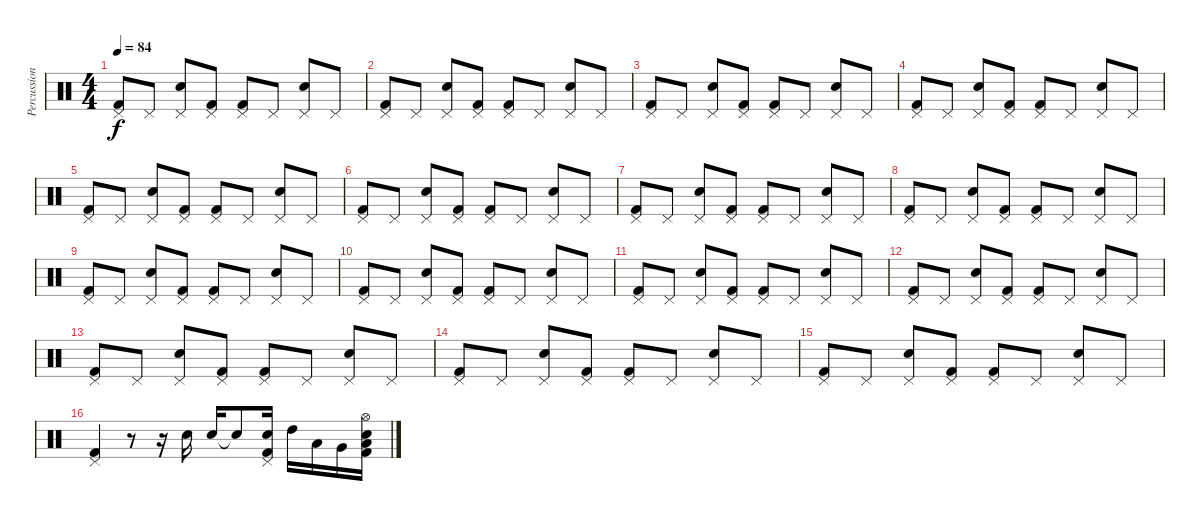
\track ("Percussion" "Percussion") {instrument percussion}
\staff {score}
\articulation defaults
\ts (4 4)
\tempo 84
\clef neutral
\ks c
("Pedal Hi-Hat (hit)" "Kick (hit) 2").8{dy f} "Pedal Hi-Hat (hit)".8 ("Pedal Hi-Hat (hit)" "Snare (hit) 2").8 ("Pedal Hi-Hat (hit)" "Kick (hit) 2").8 ("Pedal Hi-Hat (hit)" "Kick (hit) 2").8 "Pedal Hi-Hat (hit)".8 ("Pedal Hi-Hat (hit)" "Snare (hit) 2").8 "Pedal Hi-Hat (hit)".8 |
("Pedal Hi-Hat (hit)" "Kick (hit) 2").8 "Pedal Hi-Hat (hit)".8 ("Pedal Hi-Hat (hit)" "Snare (hit) 2").8 ("Pedal Hi-Hat (hit)" "Kick (hit) 2").8 ("Pedal Hi-Hat (hit)" "Kick (hit) 2").8 "Pedal Hi-Hat (hit)".8 ("Pedal Hi-Hat (hit)" "Snare (hit) 2").8 "Pedal Hi-Hat (hit)".8 |
("Pedal Hi-Hat (hit)" "Kick (hit) 2").8 "Pedal Hi-Hat (hit)".8 ("Pedal Hi-Hat (hit)" "Snare (hit) 2").8 ("Pedal Hi-Hat (hit)" "Kick (hit) 2").8 ("Pedal Hi-Hat (hit)" "Kick (hit) 2").8 "Pedal Hi-Hat (hit)".8 ("Pedal Hi-Hat (hit)" "Snare (hit) 2").8 "Pedal Hi-Hat (hit)".8 |
("Pedal Hi-Hat (hit)" "Kick (hit) 2").8 "Pedal Hi-Hat (hit)".8 ("Pedal Hi-Hat (hit)" "Snare (hit) 2").8 ("Pedal Hi-Hat (hit)" "Kick (hit) 2").8 ("Pedal Hi-Hat (hit)" "Kick (hit) 2").8 "Pedal Hi-Hat (hit)".8 ("Pedal Hi-Hat (hit)" "Snare (hit) 2").8 "Pedal Hi-Hat (hit)".8 |
("Pedal Hi-Hat (hit)" "Kick (hit) 2").8 "Pedal Hi-Hat (hit)".8 ("Pedal Hi-Hat (hit)" "Snare (hit) 2").8 ("Pedal Hi-Hat (hit)" "Kick (hit) 2").8 ("Pedal Hi-Hat (hit)" "Kick (hit) 2").8 "Pedal Hi-Hat (hit)".8 ("Pedal Hi-Hat (hit)" "Snare (hit) 2").8 "Pedal Hi-Hat (hit)".8 |
("Pedal Hi-Hat (hit)" "Kick (hit) 2").8 "Pedal Hi-Hat (hit)".8 ("Pedal Hi-Hat (hit)" "Snare (hit) 2").8 ("Pedal Hi-Hat (hit)" "Kick (hit) 2").8 ("Pedal Hi-Hat (hit)" "Kick (hit) 2").8 "Pedal Hi-Hat (hit)".8 ("Pedal Hi-Hat (hit)" "Snare (hit) 2").8 "Pedal Hi-Hat (hit)".8 |
("Pedal Hi-Hat (hit)" "Kick (hit) 2").8 "Pedal Hi-Hat (hit)".8 ("Pedal Hi-Hat (hit)" "Snare (hit) 2").8 ("Pedal Hi-Hat (hit)" "Kick (hit) 2").8 ("Pedal Hi-Hat (hit)" "Kick (hit) 2").8 "Pedal Hi-Hat (hit)".8 ("Pedal Hi-Hat (hit)" "Snare (hit) 2").8 "Pedal Hi-Hat (hit)".8 |
("Pedal Hi-Hat (hit)" "Kick (hit) 2").8 "Pedal Hi-Hat (hit)".8 ("Pedal Hi-Hat (hit)" "Snare (hit) 2").8 ("Pedal Hi-Hat (hit)" "Kick (hit) 2").8 ("Pedal Hi-Hat (hit)" "Kick (hit) 2").8 "Pedal Hi-Hat (hit)".8 ("Pedal Hi-Hat (hit)" "Snare (hit) 2").8 "Pedal Hi-Hat (hit)".8 |
("Pedal Hi-Hat (hit)" "Kick (hit) 2").8 "Pedal Hi-Hat (hit)".8 ("Pedal Hi-Hat (hit)" "Snare (hit) 2").8 ("Pedal Hi-Hat (hit)" "Kick (hit) 2").8 ("Pedal Hi-Hat (hit)" "Kick (hit) 2").8 "Pedal Hi-Hat (hit)".8 ("Pedal Hi-Hat (hit)" "Snare (hit) 2").8 "Pedal Hi-Hat (hit)".8 |
("Pedal Hi-Hat (hit)" "Kick (hit) 2").8 "Pedal Hi-Hat (hit)".8 ("Pedal Hi-Hat (hit)" "Snare (hit) 2").8 ("Pedal Hi-Hat (hit)" "Kick (hit) 2").8 ("Pedal Hi-Hat (hit)" "Kick (hit) 2").8 "Pedal Hi-Hat (hit)".8 ("Pedal Hi-Hat (hit)" "Snare (hit) 2").8 "Pedal Hi-Hat (hit)".8 |
("Pedal Hi-Hat (hit)" "Kick (hit) 2").8 "Pedal Hi-Hat (hit)".8 ("Pedal Hi-Hat (hit)" "Snare (hit) 2").8 ("Pedal Hi-Hat (hit)" "Kick (hit) 2").8 ("Pedal Hi-Hat (hit)" "Kick (hit) 2").8 "Pedal Hi-Hat (hit)".8 ("Pedal Hi-Hat (hit)" "Snare (hit) 2").8 "Pedal Hi-Hat (hit)".8 |
("Pedal Hi-Hat (hit)" "Kick (hit) 2").8 "Pedal Hi-Hat (hit)".8 ("Pedal Hi-Hat (hit)" "Snare (hit) 2").8 ("Pedal Hi-Hat (hit)" "Kick (hit) 2").8 ("Pedal Hi-Hat (hit)" "Kick (hit) 2").8 "Pedal Hi-Hat (hit)".8 ("Pedal Hi-Hat (hit)" "Snare (hit) 2").8 "Pedal Hi-Hat (hit)".8 |
("Pedal Hi-Hat (hit)" "Kick (hit) 2").8 "Pedal Hi-Hat (hit)".8 ("Pedal Hi-Hat (hit)" "Snare (hit) 2").8 ("Pedal Hi-Hat (hit)" "Kick (hit) 2").8 ("Pedal Hi-Hat (hit)" "Kick (hit) 2").8 "Pedal Hi-Hat (hit)".8 ("Pedal Hi-Hat (hit)" "Snare (hit) 2").8 "Pedal Hi-Hat (hit)".8 |
("Pedal Hi-Hat (hit)" "Kick (hit) 2").8 "Pedal Hi-Hat (hit)".8 ("Pedal Hi-Hat (hit)" "Snare (hit) 2").8 ("Pedal Hi-Hat (hit)" "Kick (hit) 2").8 ("Pedal Hi-Hat (hit)" "Kick (hit) 2").8 "Pedal Hi-Hat (hit)".8 ("Pedal Hi-Hat (hit)" "Snare (hit) 2").8 "Pedal Hi-Hat (hit)".8 |
("Pedal Hi-Hat (hit)" "Kick (hit) 2").8 "Pedal Hi-Hat (hit)".8 ("Pedal Hi-Hat (hit)" "Snare (hit) 2").8 ("Pedal Hi-Hat (hit)" "Kick (hit) 2").8 ("Pedal Hi-Hat (hit)" "Kick (hit) 2").8 "Pedal Hi-Hat (hit)".8 ("Pedal Hi-Hat (hit)" "Snare (hit) 2").8 "Pedal Hi-Hat (hit)".8 |
("Pedal Hi-Hat (hit)" "Kick (hit) 2").4 r.8 r.16 "Snare (hit) 2".16 "Snare (hit) 2".16 "Snare (hit)"{t}.8 ("Pedal Hi-Hat (hit)" "Snare (hit) 2" "Kick (hit) 2").16 "High Tom (hit)".16 "Low Tom (hit)".16 "Very Low Tom (hit)".16 ("Hi-Hat (open)" "Snare (hit) 2" "Low Tom (hit)" "Kick (hit) 2").16
